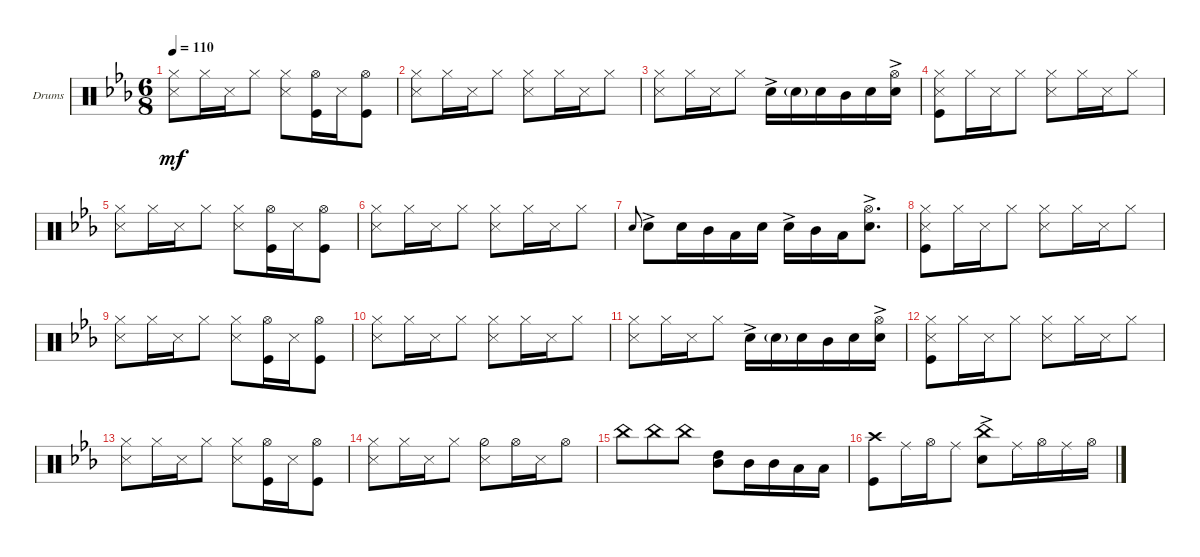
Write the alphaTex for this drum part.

\bracketExtendMode groupsimilarinstruments
\firstSystemTrackNameOrientation horizontal
\otherSystemsTrackNameOrientation horizontal
\track ("Drumkit" "Drums") {instrument percussion}
\staff {score}
\articulation defaults
\ts (6 8)
\tempo 110
\clef neutral
\ks cminor
("Snare (side stick) 3" "Hi-Hat (closed)").8{dy mf} "Hi-Hat (closed)".16 "Snare (side stick) 3".16 "Hi-Hat (closed)".8 ("Snare (side stick) 3" "Hi-Hat (closed)").8 ("Hi-Hat (open)" "Kick (hit)").16 "Snare (side stick) 3".16 ("Hi-Hat (open)" "Kick (hit)").8 |
("Snare (side stick) 3" "Hi-Hat (closed)").8 "Hi-Hat (closed)".16 "Snare (side stick) 3".16 "Hi-Hat (closed)".8 ("Snare (side stick) 3" "Hi-Hat (closed)").8 "Hi-Hat (closed)".16 "Snare (side stick) 3".16 "Hi-Hat (closed)".8 |
("Snare (side stick) 3" "Hi-Hat (closed)").8 "Hi-Hat (closed)".16 "Snare (side stick) 3".16 "Hi-Hat (closed)".8 "Snare (hit) 2"{ac}.16 "Snare (hit) 2"{g}.16 "Snare (hit) 2".16 "Mid Tom (hit)".16 "Snare (hit) 2".16 ("Snare (hit) 2"{ac} "Hi-Hat (open)").16 |
("Kick (hit)" "Snare (side stick) 3" "Hi-Hat (closed)").8 "Hi-Hat (closed)".16 "Snare (side stick) 3".16 "Hi-Hat (closed)".8 ("Snare (side stick) 3" "Hi-Hat (closed)").8 "Hi-Hat (closed)".16 "Snare (side stick) 3".16 "Hi-Hat (closed)".8 |
("Snare (side stick) 3" "Hi-Hat (closed)").8 "Hi-Hat (closed)".16 "Snare (side stick) 3".16 "Hi-Hat (closed)".8 ("Snare (side stick) 3" "Hi-Hat (closed)").8 ("Hi-Hat (open)" "Kick (hit)").16 "Snare (side stick) 3".16 ("Hi-Hat (open)" "Kick (hit)").8 |
("Snare (side stick) 3" "Hi-Hat (closed)").8 "Hi-Hat (closed)".16 "Snare (side stick) 3".16 "Hi-Hat (closed)".8 ("Snare (side stick) 3" "Hi-Hat (closed)").8 "Hi-Hat (closed)".16 "Snare (side stick) 3".16 "Hi-Hat (closed)".8 |
"Snare (hit) 2".8{gr onbeat} "Snare (hit) 2"{ac}.8 "Snare (hit) 2".16 "Mid Tom (hit)".16 "Low Tom (hit)".16 "Snare (hit) 2".16 "Snare (hit) 2"{ac}.16 "Mid Tom (hit)".16 "Low Tom (hit)".16 ("Snare (hit) 2"{ac} "Hi-Hat (open)").8{d} |
("Kick (hit)" "Snare (side stick) 3" "Hi-Hat (closed)").8 "Hi-Hat (closed)".16 "Snare (side stick) 3".16 "Hi-Hat (closed)".8 ("Snare (side stick) 3" "Hi-Hat (closed)").8 "Hi-Hat (closed)".16 "Snare (side stick) 3".16 "Hi-Hat (closed)".8 |
("Snare (side stick) 3" "Hi-Hat (closed)").8 "Hi-Hat (closed)".16 "Snare (side stick) 3".16 "Hi-Hat (closed)".8 ("Snare (side stick) 3" "Hi-Hat (closed)").8 ("Hi-Hat (open)" "Kick (hit)").16 "Snare (side stick) 3".16 ("Hi-Hat (open)" "Kick (hit)").8 |
("Snare (side stick) 3" "Hi-Hat (closed)").8 "Hi-Hat (closed)".16 "Snare (side stick) 3".16 "Hi-Hat (closed)".8 ("Snare (side stick) 3" "Hi-Hat (closed)").8 "Hi-Hat (closed)".16 "Snare (side stick) 3".16 "Hi-Hat (closed)".8 |
("Snare (side stick) 3" "Hi-Hat (closed)").8 "Hi-Hat (closed)".16 "Snare (side stick) 3".16 "Hi-Hat (closed)".8 "Snare (hit) 2"{ac}.16 "Snare (hit) 2"{g}.16 "Snare (hit) 2".16 "Mid Tom (hit)".16 "Snare (hit) 2".16 ("Snare (hit) 2"{ac} "Hi-Hat (open)").16 |
("Kick (hit)" "Snare (side stick) 3" "Hi-Hat (closed)").8 "Hi-Hat (closed)".16 "Snare (side stick) 3".16 "Hi-Hat (closed)".8 ("Snare (side stick) 3" "Hi-Hat (closed)").8 "Hi-Hat (closed)".16 "Snare (side stick) 3".16 "Hi-Hat (closed)".8 |
("Snare (side stick) 3" "Hi-Hat (closed)").8 "Hi-Hat (closed)".16 "Snare (side stick) 3".16 "Hi-Hat (closed)".8 ("Snare (side stick) 3" "Hi-Hat (closed)").8 ("Hi-Hat (open)" "Kick (hit)").16 "Snare (side stick) 3".16 ("Hi-Hat (open)" "Kick (hit)").8 |
("Snare (side stick) 3" "Hi-Hat (closed)").8 "Hi-Hat (closed)".16 "Snare (side stick) 3".16 "Hi-Hat (closed)".8 ("Snare (side stick) 3" "Hi-Hat (half)").8 "Hi-Hat (open)".16 "Snare (side stick) 3".16 "Hi-Hat (open)".8 |
"China (hit)".8 "China (hit)".8 "China (hit)".8 ("High Tom (hit)" "Mid Tom (hit)").8 "Mid Tom (hit)".16 "Mid Tom (hit)".16 "Low Tom (hit)".16 "Low Tom (hit)".16 |
("Crash high (hit)" "Kick (hit)").8 "Ride (middle)".16 "Hi-Hat (open)".16 "Ride (middle)".8 ("Snare (hit) 2"{ac} "China (hit)").8 "Ride (middle)".16 "Hi-Hat (open)".16 "Ride (middle)".16 "Hi-Hat (open)".16
